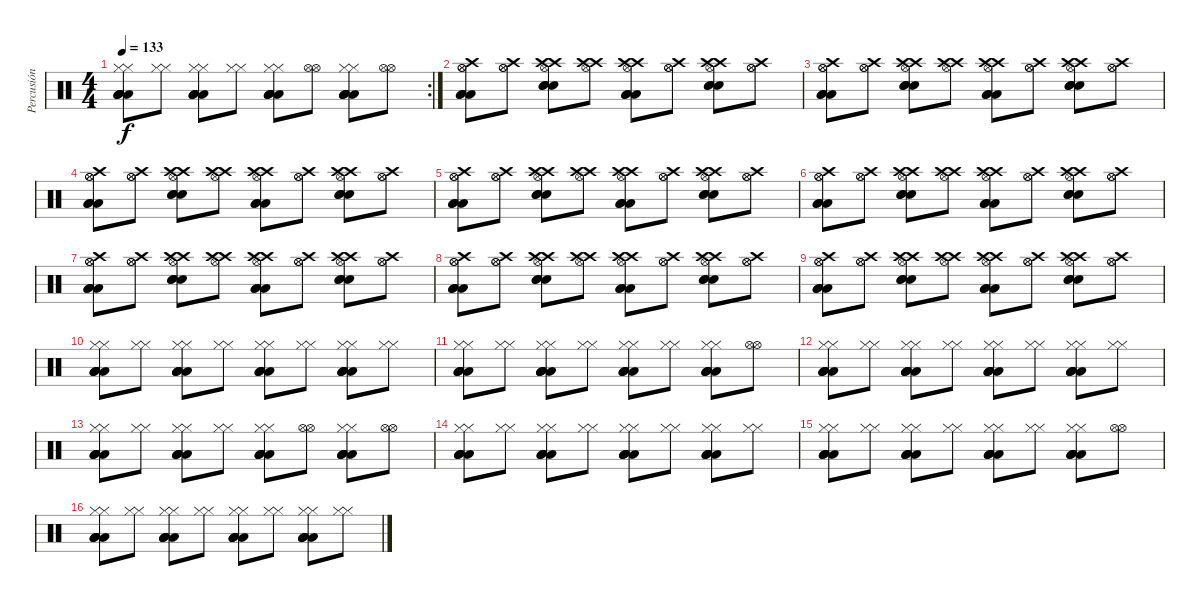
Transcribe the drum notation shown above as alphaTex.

\track ("Percusión" "Percusión") {instrument percussion}
\staff {score}
\articulation defaults
\rc 2
\ts (4 4)
\tempo 133
\clef neutral
\ks c
("Hi-Hat (closed)" "Hi-Hat (closed)" "Low Tom (hit)" "Low Tom (hit)" "Low Tom (hit)" "Low Tom (hit)").8{dy f} ("Hi-Hat (closed)" "Hi-Hat (closed)").8 ("Hi-Hat (closed)" "Hi-Hat (closed)" "Low Tom (hit)" "Low Tom (hit)" "Low Tom (hit)" "Low Tom (hit)").8 ("Hi-Hat (closed)" "Hi-Hat (closed)").8 ("Hi-Hat (closed)" "Hi-Hat (closed)" "Low Tom (hit)" "Low Tom (hit)" "Low Tom (hit)" "Low Tom (hit)").8 ("Hi-Hat (open)" "Hi-Hat (open)").8 ("Hi-Hat (closed)" "Hi-Hat (closed)" "Low Tom (hit)" "Low Tom (hit)" "Low Tom (hit)" "Low Tom (hit)").8 ("Hi-Hat (open)" "Hi-Hat (open)").8 |
("Hi-Hat (open)" "Hi-Hat (open)" "Crash high (hit)" "Low Tom (hit)" "Low Tom (hit)" "Low Tom (hit)").8 ("Hi-Hat (open)" "Hi-Hat (open)" "Crash high (hit)").8 ("Hi-Hat (open)" "Crash high (hit)" "Crash high (hit)" "Snare (hit) 2" "Snare (hit) 2" "Snare (hit) 2").8 ("Hi-Hat (open)" "Crash high (hit)" "Crash high (hit)").8 ("Hi-Hat (open)" "Crash high (hit)" "Crash high (hit)" "Low Tom (hit)" "Low Tom (hit)" "Low Tom (hit)").8 ("Hi-Hat (open)" "Crash high (hit)" "Hi-Hat (open)").8 ("Hi-Hat (open)" "Crash high (hit)" "Crash high (hit)" "Snare (hit) 2" "Snare (hit) 2" "Snare (hit) 2").8 ("Hi-Hat (open)" "Hi-Hat (open)" "Crash high (hit)").8 |
("Hi-Hat (open)" "Hi-Hat (open)" "Crash high (hit)" "Low Tom (hit)" "Low Tom (hit)" "Low Tom (hit)").8 ("Hi-Hat (open)" "Hi-Hat (open)" "Crash high (hit)").8 ("Hi-Hat (open)" "Crash high (hit)" "Crash high (hit)" "Snare (hit) 2" "Snare (hit) 2" "Snare (hit) 2").8 ("Hi-Hat (open)" "Crash high (hit)" "Crash high (hit)").8 ("Hi-Hat (open)" "Crash high (hit)" "Crash high (hit)" "Low Tom (hit)" "Low Tom (hit)" "Low Tom (hit)").8 ("Hi-Hat (open)" "Crash high (hit)" "Hi-Hat (open)").8 ("Hi-Hat (open)" "Crash high (hit)" "Crash high (hit)" "Snare (hit) 2" "Snare (hit) 2" "Snare (hit) 2").8 ("Hi-Hat (open)" "Hi-Hat (open)" "Crash high (hit)").8 |
("Hi-Hat (open)" "Hi-Hat (open)" "Crash high (hit)" "Low Tom (hit)" "Low Tom (hit)" "Low Tom (hit)").8 ("Hi-Hat (open)" "Hi-Hat (open)" "Crash high (hit)").8 ("Hi-Hat (open)" "Crash high (hit)" "Crash high (hit)" "Snare (hit) 2" "Snare (hit) 2" "Snare (hit) 2").8 ("Hi-Hat (open)" "Crash high (hit)" "Crash high (hit)").8 ("Hi-Hat (open)" "Crash high (hit)" "Crash high (hit)" "Low Tom (hit)" "Low Tom (hit)" "Low Tom (hit)").8 ("Hi-Hat (open)" "Crash high (hit)" "Hi-Hat (open)").8 ("Hi-Hat (open)" "Crash high (hit)" "Crash high (hit)" "Snare (hit) 2" "Snare (hit) 2" "Snare (hit) 2").8 ("Hi-Hat (open)" "Hi-Hat (open)" "Crash high (hit)").8 |
("Hi-Hat (open)" "Hi-Hat (open)" "Crash high (hit)" "Low Tom (hit)" "Low Tom (hit)" "Low Tom (hit)").8 ("Hi-Hat (open)" "Hi-Hat (open)" "Crash high (hit)").8 ("Hi-Hat (open)" "Crash high (hit)" "Crash high (hit)" "Snare (hit) 2" "Snare (hit) 2" "Snare (hit) 2").8 ("Hi-Hat (open)" "Crash high (hit)" "Crash high (hit)").8 ("Hi-Hat (open)" "Crash high (hit)" "Crash high (hit)" "Low Tom (hit)" "Low Tom (hit)" "Low Tom (hit)").8 ("Hi-Hat (open)" "Crash high (hit)" "Hi-Hat (open)").8 ("Hi-Hat (open)" "Crash high (hit)" "Crash high (hit)" "Snare (hit) 2" "Snare (hit) 2" "Snare (hit) 2").8 ("Hi-Hat (open)" "Hi-Hat (open)" "Crash high (hit)").8 |
("Hi-Hat (open)" "Hi-Hat (open)" "Crash high (hit)" "Low Tom (hit)" "Low Tom (hit)" "Low Tom (hit)").8 ("Hi-Hat (open)" "Hi-Hat (open)" "Crash high (hit)").8 ("Hi-Hat (open)" "Crash high (hit)" "Crash high (hit)" "Snare (hit) 2" "Snare (hit) 2" "Snare (hit) 2").8 ("Hi-Hat (open)" "Crash high (hit)" "Crash high (hit)").8 ("Hi-Hat (open)" "Crash high (hit)" "Crash high (hit)" "Low Tom (hit)" "Low Tom (hit)" "Low Tom (hit)").8 ("Hi-Hat (open)" "Crash high (hit)" "Hi-Hat (open)").8 ("Hi-Hat (open)" "Crash high (hit)" "Crash high (hit)" "Snare (hit) 2" "Snare (hit) 2" "Snare (hit) 2").8 ("Hi-Hat (open)" "Hi-Hat (open)" "Crash high (hit)").8 |
("Hi-Hat (open)" "Hi-Hat (open)" "Crash high (hit)" "Low Tom (hit)" "Low Tom (hit)" "Low Tom (hit)").8 ("Hi-Hat (open)" "Hi-Hat (open)" "Crash high (hit)").8 ("Hi-Hat (open)" "Crash high (hit)" "Crash high (hit)" "Snare (hit) 2" "Snare (hit) 2" "Snare (hit) 2").8 ("Hi-Hat (open)" "Crash high (hit)" "Crash high (hit)").8 ("Hi-Hat (open)" "Crash high (hit)" "Crash high (hit)" "Low Tom (hit)" "Low Tom (hit)" "Low Tom (hit)").8 ("Hi-Hat (open)" "Crash high (hit)" "Hi-Hat (open)").8 ("Hi-Hat (open)" "Crash high (hit)" "Crash high (hit)" "Snare (hit) 2" "Snare (hit) 2" "Snare (hit) 2").8 ("Hi-Hat (open)" "Hi-Hat (open)" "Crash high (hit)").8 |
("Hi-Hat (open)" "Hi-Hat (open)" "Crash high (hit)" "Low Tom (hit)" "Low Tom (hit)" "Low Tom (hit)").8 ("Hi-Hat (open)" "Hi-Hat (open)" "Crash high (hit)").8 ("Hi-Hat (open)" "Crash high (hit)" "Crash high (hit)" "Snare (hit) 2" "Snare (hit) 2" "Snare (hit) 2").8 ("Hi-Hat (open)" "Crash high (hit)" "Crash high (hit)").8 ("Hi-Hat (open)" "Crash high (hit)" "Crash high (hit)" "Low Tom (hit)" "Low Tom (hit)" "Low Tom (hit)").8 ("Hi-Hat (open)" "Crash high (hit)" "Hi-Hat (open)").8 ("Hi-Hat (open)" "Crash high (hit)" "Crash high (hit)" "Snare (hit) 2" "Snare (hit) 2" "Snare (hit) 2").8 ("Hi-Hat (open)" "Hi-Hat (open)" "Crash high (hit)").8 |
("Hi-Hat (open)" "Hi-Hat (open)" "Crash high (hit)" "Low Tom (hit)" "Low Tom (hit)" "Low Tom (hit)").8 ("Hi-Hat (open)" "Hi-Hat (open)" "Crash high (hit)").8 ("Hi-Hat (open)" "Crash high (hit)" "Crash high (hit)" "Snare (hit) 2" "Snare (hit) 2" "Snare (hit) 2").8 ("Hi-Hat (open)" "Crash high (hit)" "Crash high (hit)").8 ("Hi-Hat (open)" "Crash high (hit)" "Crash high (hit)" "Low Tom (hit)" "Low Tom (hit)" "Low Tom (hit)").8 ("Hi-Hat (open)" "Crash high (hit)" "Hi-Hat (open)").8 ("Hi-Hat (open)" "Crash high (hit)" "Crash high (hit)" "Snare (hit) 2" "Snare (hit) 2" "Snare (hit) 2").8 ("Hi-Hat (open)" "Hi-Hat (open)" "Crash high (hit)").8 |
("Hi-Hat (closed)" "Hi-Hat (closed)" "Low Tom (hit)" "Low Tom (hit)" "Low Tom (hit)" "Low Tom (hit)").8 ("Hi-Hat (closed)" "Hi-Hat (closed)").8 ("Hi-Hat (closed)" "Hi-Hat (closed)" "Low Tom (hit)" "Low Tom (hit)" "Low Tom (hit)" "Low Tom (hit)").8 ("Hi-Hat (closed)" "Hi-Hat (closed)").8 ("Hi-Hat (closed)" "Hi-Hat (closed)" "Low Tom (hit)" "Low Tom (hit)" "Low Tom (hit)" "Low Tom (hit)").8 ("Hi-Hat (closed)" "Hi-Hat (closed)").8 ("Hi-Hat (closed)" "Hi-Hat (closed)" "Low Tom (hit)" "Low Tom (hit)" "Low Tom (hit)" "Low Tom (hit)").8 ("Hi-Hat (closed)" "Hi-Hat (closed)").8 |
("Hi-Hat (closed)" "Hi-Hat (closed)" "Low Tom (hit)" "Low Tom (hit)" "Low Tom (hit)" "Low Tom (hit)").8 ("Hi-Hat (closed)" "Hi-Hat (closed)").8 ("Hi-Hat (closed)" "Hi-Hat (closed)" "Low Tom (hit)" "Low Tom (hit)" "Low Tom (hit)" "Low Tom (hit)").8 ("Hi-Hat (closed)" "Hi-Hat (closed)").8 ("Hi-Hat (closed)" "Hi-Hat (closed)" "Low Tom (hit)" "Low Tom (hit)" "Low Tom (hit)" "Low Tom (hit)").8 ("Hi-Hat (closed)" "Hi-Hat (closed)").8 ("Hi-Hat (closed)" "Hi-Hat (closed)" "Low Tom (hit)" "Low Tom (hit)" "Low Tom (hit)" "Low Tom (hit)").8 ("Hi-Hat (open)" "Hi-Hat (open)").8 |
("Hi-Hat (closed)" "Hi-Hat (closed)" "Low Tom (hit)" "Low Tom (hit)" "Low Tom (hit)" "Low Tom (hit)").8 ("Hi-Hat (closed)" "Hi-Hat (closed)").8 ("Hi-Hat (closed)" "Hi-Hat (closed)" "Low Tom (hit)" "Low Tom (hit)" "Low Tom (hit)" "Low Tom (hit)").8 ("Hi-Hat (closed)" "Hi-Hat (closed)").8 ("Hi-Hat (closed)" "Hi-Hat (closed)" "Low Tom (hit)" "Low Tom (hit)" "Low Tom (hit)" "Low Tom (hit)").8 ("Hi-Hat (closed)" "Hi-Hat (closed)").8 ("Hi-Hat (closed)" "Hi-Hat (closed)" "Low Tom (hit)" "Low Tom (hit)" "Low Tom (hit)" "Low Tom (hit)").8 ("Hi-Hat (closed)" "Hi-Hat (closed)").8 |
("Hi-Hat (closed)" "Hi-Hat (closed)" "Low Tom (hit)" "Low Tom (hit)" "Low Tom (hit)" "Low Tom (hit)").8 ("Hi-Hat (closed)" "Hi-Hat (closed)").8 ("Hi-Hat (closed)" "Hi-Hat (closed)" "Low Tom (hit)" "Low Tom (hit)" "Low Tom (hit)" "Low Tom (hit)").8 ("Hi-Hat (closed)" "Hi-Hat (closed)").8 ("Hi-Hat (closed)" "Hi-Hat (closed)" "Low Tom (hit)" "Low Tom (hit)" "Low Tom (hit)" "Low Tom (hit)").8 ("Hi-Hat (open)" "Hi-Hat (open)").8 ("Hi-Hat (closed)" "Hi-Hat (closed)" "Low Tom (hit)" "Low Tom (hit)" "Low Tom (hit)" "Low Tom (hit)").8 ("Hi-Hat (open)" "Hi-Hat (open)").8 |
("Hi-Hat (closed)" "Hi-Hat (closed)" "Low Tom (hit)" "Low Tom (hit)" "Low Tom (hit)" "Low Tom (hit)").8 ("Hi-Hat (closed)" "Hi-Hat (closed)").8 ("Hi-Hat (closed)" "Hi-Hat (closed)" "Low Tom (hit)" "Low Tom (hit)" "Low Tom (hit)" "Low Tom (hit)").8 ("Hi-Hat (closed)" "Hi-Hat (closed)").8 ("Hi-Hat (closed)" "Hi-Hat (closed)" "Low Tom (hit)" "Low Tom (hit)" "Low Tom (hit)" "Low Tom (hit)").8 ("Hi-Hat (closed)" "Hi-Hat (closed)").8 ("Hi-Hat (closed)" "Hi-Hat (closed)" "Low Tom (hit)" "Low Tom (hit)" "Low Tom (hit)" "Low Tom (hit)").8 ("Hi-Hat (closed)" "Hi-Hat (closed)").8 |
("Hi-Hat (closed)" "Hi-Hat (closed)" "Low Tom (hit)" "Low Tom (hit)" "Low Tom (hit)" "Low Tom (hit)").8 ("Hi-Hat (closed)" "Hi-Hat (closed)").8 ("Hi-Hat (closed)" "Hi-Hat (closed)" "Low Tom (hit)" "Low Tom (hit)" "Low Tom (hit)" "Low Tom (hit)").8 ("Hi-Hat (closed)" "Hi-Hat (closed)").8 ("Hi-Hat (closed)" "Hi-Hat (closed)" "Low Tom (hit)" "Low Tom (hit)" "Low Tom (hit)" "Low Tom (hit)").8 ("Hi-Hat (closed)" "Hi-Hat (closed)").8 ("Hi-Hat (closed)" "Hi-Hat (closed)" "Low Tom (hit)" "Low Tom (hit)" "Low Tom (hit)" "Low Tom (hit)").8 ("Hi-Hat (open)" "Hi-Hat (open)").8 |
("Hi-Hat (closed)" "Hi-Hat (closed)" "Low Tom (hit)" "Low Tom (hit)" "Low Tom (hit)" "Low Tom (hit)").8 ("Hi-Hat (closed)" "Hi-Hat (closed)").8 ("Hi-Hat (closed)" "Hi-Hat (closed)" "Low Tom (hit)" "Low Tom (hit)" "Low Tom (hit)" "Low Tom (hit)").8 ("Hi-Hat (closed)" "Hi-Hat (closed)").8 ("Hi-Hat (closed)" "Hi-Hat (closed)" "Low Tom (hit)" "Low Tom (hit)" "Low Tom (hit)" "Low Tom (hit)").8 ("Hi-Hat (closed)" "Hi-Hat (closed)").8 ("Hi-Hat (closed)" "Hi-Hat (closed)" "Low Tom (hit)" "Low Tom (hit)" "Low Tom (hit)" "Low Tom (hit)").8 ("Hi-Hat (closed)" "Hi-Hat (closed)").8
